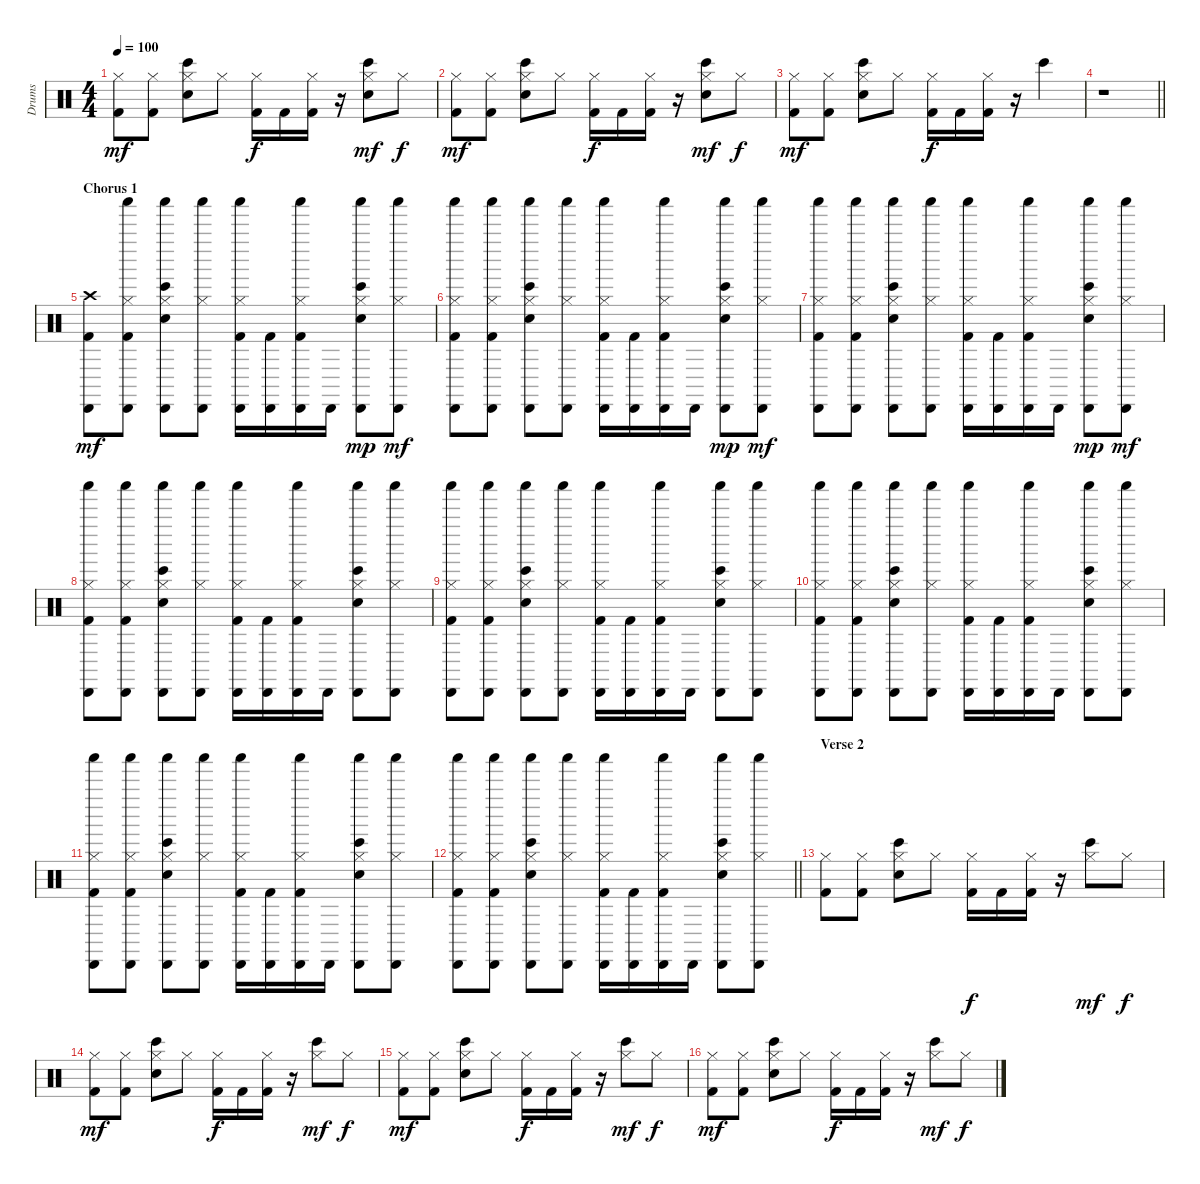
\track ("Drums" "Drums") {instrument percussion}
\staff {score}
\articulation defaults
\ts (4 4)
\tempo 100
\clef neutral
\ks c
("Hi-Hat (closed)" "Kick (hit) 2").8{dy mf} ("Hi-Hat (closed)" "Kick (hit) 2").8 ("Hi-Hat (closed)" "Bongo High (hit)" "Snare (hit) 2").8 "Hi-Hat (closed)".8 ("Hi-Hat (closed)" "Kick (hit) 2").16{dy f} "Kick (hit) 2".16 ("Hi-Hat (closed)" "Kick (hit) 2").16 r.16 ("Hi-Hat (closed)" "Bongo High (hit)" "Snare (hit) 2").8{dy mf} "Hi-Hat (closed)".8{dy f} |
("Hi-Hat (closed)" "Kick (hit) 2").8{dy mf} ("Hi-Hat (closed)" "Kick (hit) 2").8 ("Hi-Hat (closed)" "Bongo High (hit)" "Snare (hit) 2").8 "Hi-Hat (closed)".8 ("Hi-Hat (closed)" "Kick (hit) 2").16{dy f} "Kick (hit) 2".16 ("Hi-Hat (closed)" "Kick (hit) 2").16 r.16 ("Hi-Hat (closed)" "Bongo High (hit)" "Snare (hit) 2").8{dy mf} "Hi-Hat (closed)".8{dy f} |
("Hi-Hat (closed)" "Kick (hit) 2").8{dy mf} ("Hi-Hat (closed)" "Kick (hit) 2").8 ("Hi-Hat (closed)" "Bongo High (hit)" "Snare (hit) 2").8 "Hi-Hat (closed)".8 ("Hi-Hat (closed)" "Kick (hit) 2").16{dy f} "Kick (hit) 2".16 ("Hi-Hat (closed)" "Kick (hit) 2").16 r.16 "Bongo High (hit)".4 |
\barLineRight lightlight
r.1 |
\section ("" "Chorus 1")
("Crash high (hit)" "Cabasa (hit)" "Kick (hit) 2").8{dy mf} ("Shaker (hit)" "Hi-Hat (closed)" "Cabasa (hit)" "Kick (hit) 2").8 ("Shaker (hit)" "Hi-Hat (closed)" "Cabasa (hit)" "Bongo High (hit)" "Snare (hit) 2").8 ("Shaker (hit)" "Hi-Hat (closed)" "Cabasa (hit)").8 ("Shaker (hit)" "Hi-Hat (closed)" "Cabasa (hit)" "Kick (hit) 2").16 ("Cabasa (hit)" "Kick (hit) 2").16 ("Shaker (hit)" "Hi-Hat (closed)" "Cabasa (hit)" "Kick (hit) 2").16 "Cabasa (hit)".16 ("Shaker (hit)" "Hi-Hat (closed)" "Cabasa (hit)" "Bongo High (hit)" "Snare (hit) 2").8{dy mp} ("Shaker (hit)" "Hi-Hat (closed)" "Cabasa (hit)").8{dy mf} |
("Shaker (hit)" "Hi-Hat (closed)" "Cabasa (hit)" "Kick (hit) 2").8 ("Shaker (hit)" "Hi-Hat (closed)" "Cabasa (hit)" "Kick (hit) 2").8 ("Shaker (hit)" "Hi-Hat (closed)" "Cabasa (hit)" "Bongo High (hit)" "Snare (hit) 2").8 ("Shaker (hit)" "Hi-Hat (closed)" "Cabasa (hit)").8 ("Shaker (hit)" "Hi-Hat (closed)" "Cabasa (hit)" "Kick (hit) 2").16 ("Cabasa (hit)" "Kick (hit) 2").16 ("Shaker (hit)" "Hi-Hat (closed)" "Cabasa (hit)" "Kick (hit) 2").16 "Cabasa (hit)".16 ("Shaker (hit)" "Hi-Hat (closed)" "Cabasa (hit)" "Bongo High (hit)" "Snare (hit) 2").8{dy mp} ("Shaker (hit)" "Hi-Hat (closed)" "Cabasa (hit)").8{dy mf} |
("Shaker (hit)" "Hi-Hat (closed)" "Cabasa (hit)" "Kick (hit) 2").8 ("Shaker (hit)" "Hi-Hat (closed)" "Cabasa (hit)" "Kick (hit) 2").8 ("Shaker (hit)" "Hi-Hat (closed)" "Cabasa (hit)" "Bongo High (hit)" "Snare (hit) 2").8 ("Shaker (hit)" "Hi-Hat (closed)" "Cabasa (hit)").8 ("Shaker (hit)" "Hi-Hat (closed)" "Cabasa (hit)" "Kick (hit) 2").16 ("Cabasa (hit)" "Kick (hit) 2").16 ("Shaker (hit)" "Hi-Hat (closed)" "Cabasa (hit)" "Kick (hit) 2").16 "Cabasa (hit)".16 ("Shaker (hit)" "Hi-Hat (closed)" "Cabasa (hit)" "Bongo High (hit)" "Snare (hit) 2").8{dy mp} ("Shaker (hit)" "Hi-Hat (closed)" "Cabasa (hit)").8{dy mf} |
("Shaker (hit)" "Hi-Hat (closed)" "Cabasa (hit)" "Kick (hit) 2").8 ("Shaker (hit)" "Hi-Hat (closed)" "Cabasa (hit)" "Kick (hit) 2").8 ("Shaker (hit)" "Hi-Hat (closed)" "Cabasa (hit)" "Bongo High (hit)" "Snare (hit) 2").8 ("Shaker (hit)" "Hi-Hat (closed)" "Cabasa (hit)").8 ("Shaker (hit)" "Hi-Hat (closed)" "Cabasa (hit)" "Kick (hit) 2").16 ("Cabasa (hit)" "Kick (hit) 2").16 ("Shaker (hit)" "Hi-Hat (closed)" "Cabasa (hit)" "Kick (hit) 2").16 "Cabasa (hit)".16 ("Shaker (hit)" "Hi-Hat (closed)" "Cabasa (hit)" "Bongo High (hit)" "Snare (hit) 2").8 ("Shaker (hit)" "Hi-Hat (closed)" "Cabasa (hit)").8 |
("Shaker (hit)" "Hi-Hat (closed)" "Cabasa (hit)" "Kick (hit) 2").8 ("Shaker (hit)" "Hi-Hat (closed)" "Cabasa (hit)" "Kick (hit) 2").8 ("Shaker (hit)" "Hi-Hat (closed)" "Cabasa (hit)" "Bongo High (hit)" "Snare (hit) 2").8 ("Shaker (hit)" "Hi-Hat (closed)" "Cabasa (hit)").8 ("Shaker (hit)" "Hi-Hat (closed)" "Cabasa (hit)" "Kick (hit) 2").16 ("Cabasa (hit)" "Kick (hit) 2").16 ("Shaker (hit)" "Hi-Hat (closed)" "Cabasa (hit)" "Kick (hit) 2").16 "Cabasa (hit)".16 ("Shaker (hit)" "Hi-Hat (closed)" "Cabasa (hit)" "Bongo High (hit)" "Snare (hit) 2").8 ("Shaker (hit)" "Hi-Hat (closed)" "Cabasa (hit)").8 |
("Shaker (hit)" "Hi-Hat (closed)" "Cabasa (hit)" "Kick (hit) 2").8 ("Shaker (hit)" "Hi-Hat (closed)" "Cabasa (hit)" "Kick (hit) 2").8 ("Shaker (hit)" "Hi-Hat (closed)" "Cabasa (hit)" "Bongo High (hit)" "Snare (hit) 2").8 ("Shaker (hit)" "Hi-Hat (closed)" "Cabasa (hit)").8 ("Shaker (hit)" "Hi-Hat (closed)" "Cabasa (hit)" "Kick (hit) 2").16 ("Cabasa (hit)" "Kick (hit) 2").16 ("Shaker (hit)" "Hi-Hat (closed)" "Cabasa (hit)" "Kick (hit) 2").16 "Cabasa (hit)".16 ("Shaker (hit)" "Hi-Hat (closed)" "Cabasa (hit)" "Bongo High (hit)" "Snare (hit) 2").8 ("Shaker (hit)" "Hi-Hat (closed)" "Cabasa (hit)").8 |
("Shaker (hit)" "Hi-Hat (closed)" "Cabasa (hit)" "Kick (hit) 2").8 ("Shaker (hit)" "Hi-Hat (closed)" "Cabasa (hit)" "Kick (hit) 2").8 ("Shaker (hit)" "Hi-Hat (closed)" "Cabasa (hit)" "Bongo High (hit)" "Snare (hit) 2").8 ("Shaker (hit)" "Hi-Hat (closed)" "Cabasa (hit)").8 ("Shaker (hit)" "Hi-Hat (closed)" "Cabasa (hit)" "Kick (hit) 2").16 ("Cabasa (hit)" "Kick (hit) 2").16 ("Shaker (hit)" "Hi-Hat (closed)" "Cabasa (hit)" "Kick (hit) 2").16 "Cabasa (hit)".16 ("Shaker (hit)" "Hi-Hat (closed)" "Cabasa (hit)" "Bongo High (hit)" "Snare (hit) 2").8 ("Shaker (hit)" "Hi-Hat (closed)" "Cabasa (hit)").8 |
\barLineRight lightlight
("Shaker (hit)" "Hi-Hat (closed)" "Cabasa (hit)" "Kick (hit) 2").8 ("Shaker (hit)" "Hi-Hat (closed)" "Cabasa (hit)" "Kick (hit) 2").8 ("Shaker (hit)" "Hi-Hat (closed)" "Cabasa (hit)" "Bongo High (hit)" "Snare (hit) 2").8 ("Shaker (hit)" "Hi-Hat (closed)" "Cabasa (hit)").8 ("Shaker (hit)" "Hi-Hat (closed)" "Cabasa (hit)" "Kick (hit) 2").16 ("Cabasa (hit)" "Kick (hit) 2").16 ("Shaker (hit)" "Hi-Hat (closed)" "Cabasa (hit)" "Kick (hit) 2").16 "Cabasa (hit)".16 ("Shaker (hit)" "Hi-Hat (closed)" "Cabasa (hit)" "Bongo High (hit)" "Snare (hit) 2").8 ("Shaker (hit)" "Hi-Hat (closed)" "Cabasa (hit)").8 |
\section ("" "Verse 2")
("Hi-Hat (closed)" "Kick (hit) 2").8 ("Hi-Hat (closed)" "Kick (hit) 2").8 ("Hi-Hat (closed)" "Bongo High (hit)" "Snare (hit) 2").8 "Hi-Hat (closed)".8 ("Hi-Hat (closed)" "Kick (hit) 2").16{dy f} "Kick (hit) 2".16 ("Hi-Hat (closed)" "Kick (hit) 2").16 r.16 ("Hi-Hat (closed)" "Bongo High (hit)").8{dy mf} "Hi-Hat (closed)".8{dy f} |
("Hi-Hat (closed)" "Kick (hit) 2").8{dy mf} ("Hi-Hat (closed)" "Kick (hit) 2").8 ("Hi-Hat (closed)" "Bongo High (hit)" "Snare (hit) 2").8 "Hi-Hat (closed)".8 ("Hi-Hat (closed)" "Kick (hit) 2").16{dy f} "Kick (hit) 2".16 ("Hi-Hat (closed)" "Kick (hit) 2").16 r.16 ("Hi-Hat (closed)" "Bongo High (hit)").8{dy mf} "Hi-Hat (closed)".8{dy f} |
("Hi-Hat (closed)" "Kick (hit) 2").8{dy mf} ("Hi-Hat (closed)" "Kick (hit) 2").8 ("Hi-Hat (closed)" "Bongo High (hit)" "Snare (hit) 2").8 "Hi-Hat (closed)".8 ("Hi-Hat (closed)" "Kick (hit) 2").16{dy f} "Kick (hit) 2".16 ("Hi-Hat (closed)" "Kick (hit) 2").16 r.16 ("Hi-Hat (closed)" "Bongo High (hit)").8{dy mf} "Hi-Hat (closed)".8{dy f} |
("Hi-Hat (closed)" "Kick (hit) 2").8{dy mf} ("Hi-Hat (closed)" "Kick (hit) 2").8 ("Hi-Hat (closed)" "Bongo High (hit)" "Snare (hit) 2").8 "Hi-Hat (closed)".8 ("Hi-Hat (closed)" "Kick (hit) 2").16{dy f} "Kick (hit) 2".16 ("Hi-Hat (closed)" "Kick (hit) 2").16 r.16 ("Hi-Hat (closed)" "Bongo High (hit)").8{dy mf} "Hi-Hat (closed)".8{dy f}
